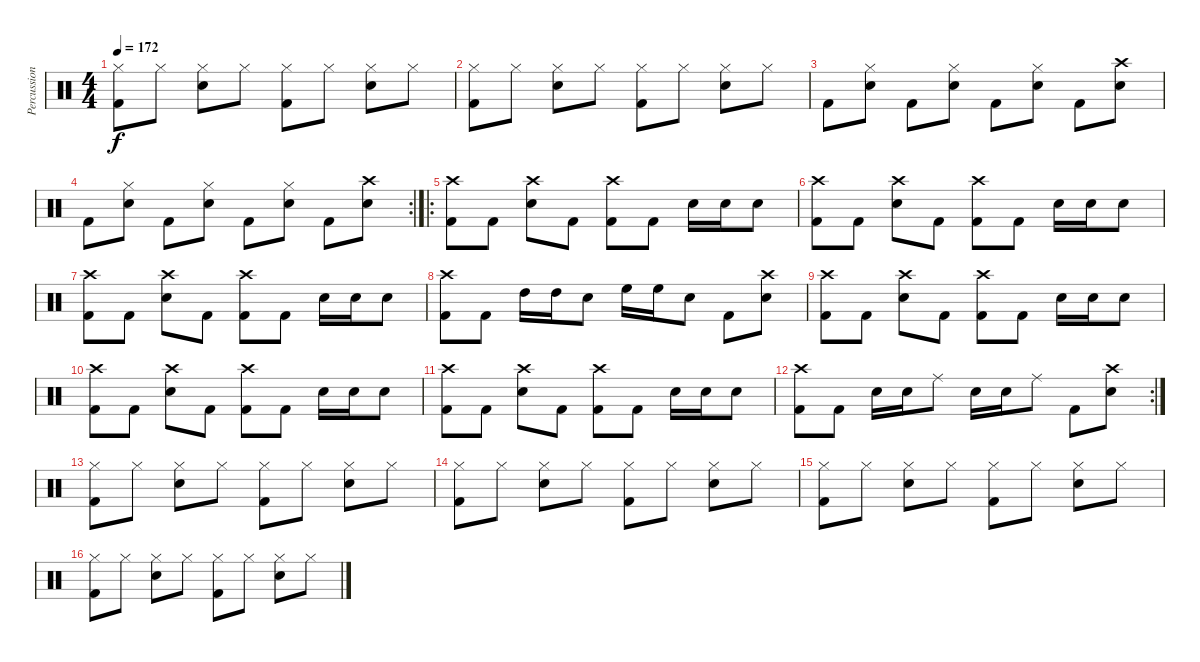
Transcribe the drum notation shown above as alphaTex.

\track ("Percussion" "Percussion") {instrument percussion}
\staff {score}
\articulation defaults
\ts (4 4)
\tempo 172
\clef neutral
\ks c
("Hi-Hat (closed)" "Kick (hit) 2").8{dy f} "Hi-Hat (closed)".8 ("Hi-Hat (closed)" "Snare (hit) 2").8 "Hi-Hat (closed)".8 ("Hi-Hat (closed)" "Kick (hit) 2").8 "Hi-Hat (closed)".8 ("Hi-Hat (closed)" "Snare (hit) 2").8 "Hi-Hat (closed)".8 |
("Hi-Hat (closed)" "Kick (hit) 2").8 "Hi-Hat (closed)".8 ("Hi-Hat (closed)" "Snare (hit) 2").8 "Hi-Hat (closed)".8 ("Hi-Hat (closed)" "Kick (hit) 2").8 "Hi-Hat (closed)".8 ("Hi-Hat (closed)" "Snare (hit) 2").8 "Hi-Hat (closed)".8 |
"Kick (hit) 2".8 ("Hi-Hat (closed)" "Snare (hit) 2").8 "Kick (hit) 2".8 ("Hi-Hat (closed)" "Snare (hit) 2").8 "Kick (hit) 2".8 ("Hi-Hat (closed)" "Snare (hit) 2").8 "Kick (hit) 2".8 ("Crash high (hit)" "Snare (hit) 2").8 |
\rc 2 "Kick (hit) 2".8
("Hi-Hat (closed)" "Snare (hit) 2").8 "Kick (hit) 2".8 ("Hi-Hat (closed)" "Snare (hit) 2").8 "Kick (hit) 2".8 ("Hi-Hat (closed)" "Snare (hit) 2").8 "Kick (hit) 2".8 ("Crash high (hit)" "Snare (hit) 2").8 |
\ro
("Crash high (hit)" "Kick (hit) 2").8 "Kick (hit) 2".8 ("Crash high (hit)" "Snare (hit) 2").8 "Kick (hit) 2".8 ("Crash high (hit)" "Kick (hit) 2").8 "Kick (hit) 2".8 "Snare (hit) 2".16 "Snare (hit) 2".16 "Snare (hit) 2".8 |
("Crash high (hit)" "Kick (hit) 2").8 "Kick (hit) 2".8 ("Crash high (hit)" "Snare (hit) 2").8 "Kick (hit) 2".8 ("Crash high (hit)" "Kick (hit) 2").8 "Kick (hit) 2".8 "Snare (hit) 2".16 "Snare (hit) 2".16 "Snare (hit) 2".8 |
("Crash high (hit)" "Kick (hit) 2").8 "Kick (hit) 2".8 ("Crash high (hit)" "Snare (hit) 2").8 "Kick (hit) 2".8 ("Crash high (hit)" "Kick (hit) 2").8 "Kick (hit) 2".8 "Snare (hit) 2".16 "Snare (hit) 2".16 "Snare (hit) 2".8 |
("Crash high (hit)" "Kick (hit) 2").8 "Kick (hit) 2".8 "High Tom (hit)".16 "High Tom (hit)".16 "Snare (hit) 2".8 "High Floor Tom (hit)".16 "High Floor Tom (hit)".16 "Snare (hit) 2".8 "Kick (hit) 2".8 ("Crash high (hit)" "Snare (hit) 2").8 |
("Crash high (hit)" "Kick (hit) 2").8 "Kick (hit) 2".8 ("Crash high (hit)" "Snare (hit) 2").8 "Kick (hit) 2".8 ("Crash high (hit)" "Kick (hit) 2").8 "Kick (hit) 2".8 "Snare (hit) 2".16 "Snare (hit) 2".16 "Snare (hit) 2".8 |
("Crash high (hit)" "Kick (hit) 2").8 "Kick (hit) 2".8 ("Crash high (hit)" "Snare (hit) 2").8 "Kick (hit) 2".8 ("Crash high (hit)" "Kick (hit) 2").8 "Kick (hit) 2".8 "Snare (hit) 2".16 "Snare (hit) 2".16 "Snare (hit) 2".8 |
("Crash high (hit)" "Kick (hit) 2").8 "Kick (hit) 2".8 ("Crash high (hit)" "Snare (hit) 2").8 "Kick (hit) 2".8 ("Crash high (hit)" "Kick (hit) 2").8 "Kick (hit) 2".8 "Snare (hit) 2".16 "Snare (hit) 2".16 "Snare (hit) 2".8 |
\rc 2
("Crash high (hit)" "Kick (hit) 2").8 "Kick (hit) 2".8 "Snare (hit) 2".16 "Snare (hit) 2".16 "Ride (middle)".8 "Snare (hit) 2".16 "Snare (hit) 2".16 "Ride (middle)".8 "Kick (hit) 2".8 ("Crash high (hit)" "Snare (hit) 2").8 |
("Hi-Hat (closed)" "Kick (hit) 2").8 "Hi-Hat (closed)".8 ("Hi-Hat (closed)" "Snare (hit) 2").8 "Hi-Hat (closed)".8 ("Hi-Hat (closed)" "Kick (hit) 2").8 "Hi-Hat (closed)".8 ("Hi-Hat (closed)" "Snare (hit) 2").8 "Hi-Hat (closed)".8 |
("Hi-Hat (closed)" "Kick (hit) 2").8 "Hi-Hat (closed)".8 ("Hi-Hat (closed)" "Snare (hit) 2").8 "Hi-Hat (closed)".8 ("Hi-Hat (closed)" "Kick (hit) 2").8 "Hi-Hat (closed)".8 ("Hi-Hat (closed)" "Snare (hit) 2").8 "Hi-Hat (closed)".8 |
("Hi-Hat (closed)" "Kick (hit) 2").8 "Hi-Hat (closed)".8 ("Hi-Hat (closed)" "Snare (hit) 2").8 "Hi-Hat (closed)".8 ("Hi-Hat (closed)" "Kick (hit) 2").8 "Hi-Hat (closed)".8 ("Hi-Hat (closed)" "Snare (hit) 2").8 "Hi-Hat (closed)".8 |
("Hi-Hat (closed)" "Kick (hit) 2").8 "Hi-Hat (closed)".8 ("Hi-Hat (closed)" "Snare (hit) 2").8 "Hi-Hat (closed)".8 ("Hi-Hat (closed)" "Kick (hit) 2").8 "Hi-Hat (closed)".8 ("Hi-Hat (closed)" "Snare (hit) 2").8 "Hi-Hat (closed)".8
